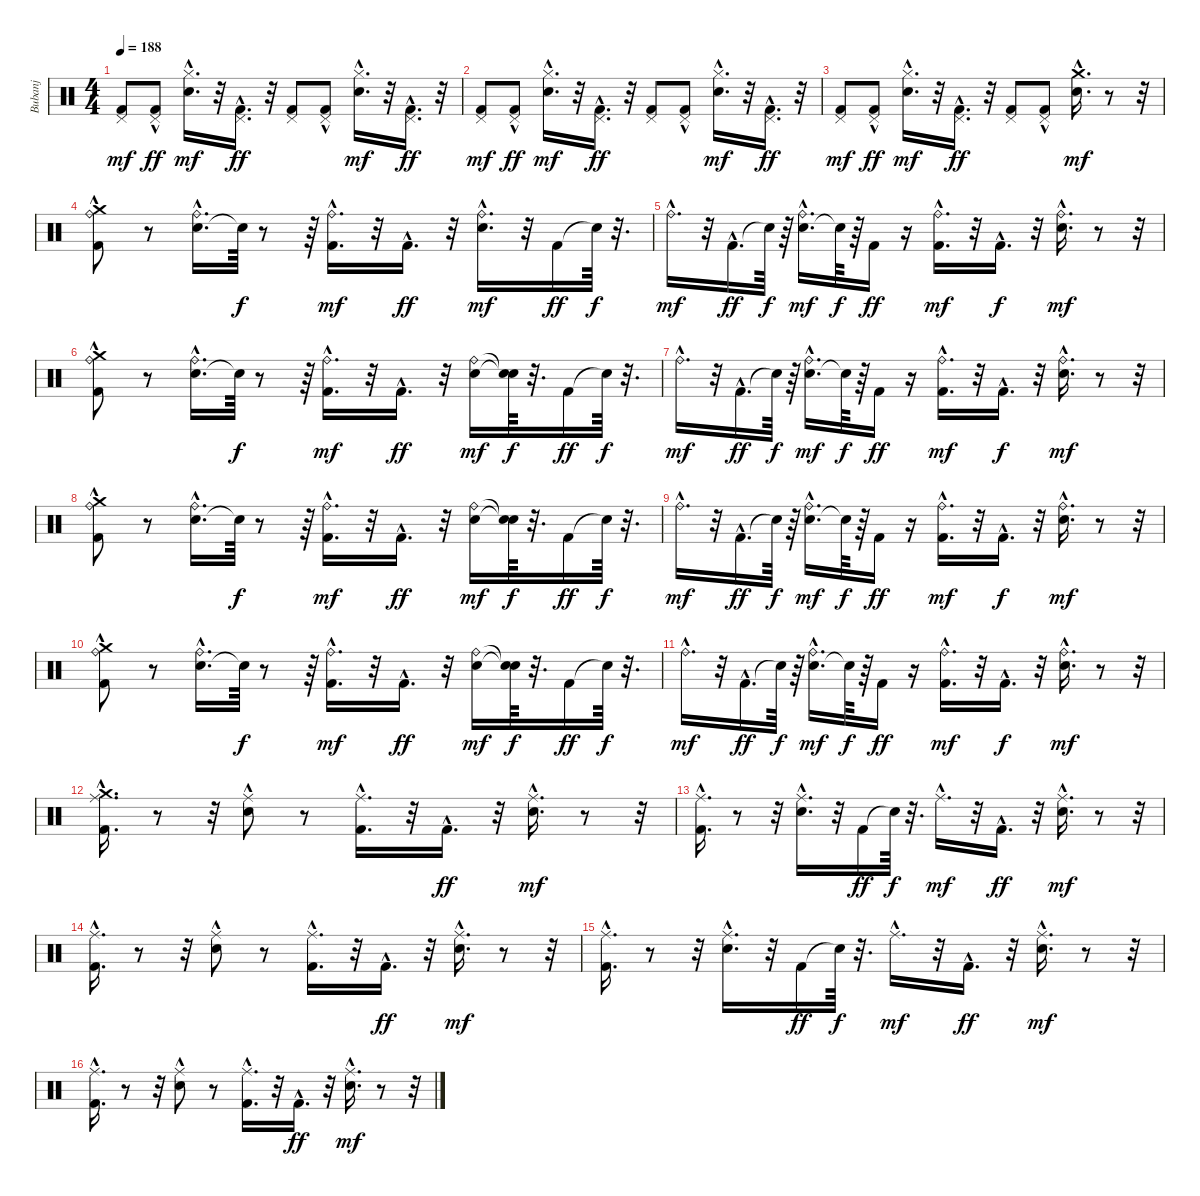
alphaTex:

\track ("Bubanj" "Bubanj") {instrument percussion}
\staff {score}
\articulation defaults
\ts (4 4)
\tempo 188
\clef neutral
\ks c
("Kick (hit) 2" "Pedal Hi-Hat (hit)").8{dy mf} ("Pedal Hi-Hat (hit)"{hac} "Kick (hit) 2").8{dy ff} ("Electric Snare (hit)"{hac} "Hi-Hat (closed)").16{d dy mf} r.32 ("Pedal Hi-Hat (hit)"{hac} "Kick (hit) 2"{hac}).16{d dy ff} r.32 ("Pedal Hi-Hat (hit)" "Kick (hit) 2").8 ("Pedal Hi-Hat (hit)"{hac} "Kick (hit) 2").8 ("Electric Snare (hit)"{hac} "Hi-Hat (closed)").16{d dy mf} r.32 ("Pedal Hi-Hat (hit)" "Kick (hit) 2"{hac}).16{d dy ff} r.32 |
("Kick (hit) 2" "Pedal Hi-Hat (hit)").8{dy mf} ("Pedal Hi-Hat (hit)"{hac} "Kick (hit) 2").8{dy ff} ("Electric Snare (hit)"{hac} "Hi-Hat (closed)").16{d dy mf} r.32 ("Pedal Hi-Hat (hit)"{hac} "Kick (hit) 2"{hac}).16{d dy ff} r.32 ("Pedal Hi-Hat (hit)" "Kick (hit) 2").8 ("Pedal Hi-Hat (hit)"{hac} "Kick (hit) 2").8 ("Electric Snare (hit)"{hac} "Hi-Hat (closed)").16{d dy mf} r.32 ("Pedal Hi-Hat (hit)" "Kick (hit) 2"{hac}).16{d dy ff} r.32 |
("Kick (hit) 2" "Pedal Hi-Hat (hit)").8{dy mf} ("Pedal Hi-Hat (hit)"{hac} "Kick (hit) 2").8{dy ff} ("Electric Snare (hit)"{hac} "Hi-Hat (closed)").16{d dy mf} r.32 ("Pedal Hi-Hat (hit)"{hac} "Kick (hit) 2"{hac}).16{d dy ff} r.32 ("Pedal Hi-Hat (hit)" "Kick (hit) 2").8 ("Pedal Hi-Hat (hit)"{hac} "Kick (hit) 2").8 ("Electric Snare (hit)"{hac} "Crash medium (hit)").16{d dy mf} r.8 r.32 |
("Kick (hit) 2" "Ride (bell)"{hac} "Crash medium (hit)"{hac}).8 r.8 ("Electric Snare (hit)"{hac} "Ride (bell)"{hac}).16{d} "Snare (hit)"{t}.64{dy f} r.8 r.64 ("Kick (hit) 2" "Ride (bell)"{hac}).16{d dy mf} r.32 "Kick (hit) 2"{hac}.16{d dy ff} r.32 ("Electric Snare (hit)" "Ride (bell)"{hac}).16{d dy mf} r.32 "Kick (hit) 2".16{dy ff} "Snare (hit)"{t}.64{dy f} r.32{d} |
"Ride (bell)"{hac}.16{d dy mf} r.32 "Kick (hit) 2"{hac}.16{d dy ff} "Snare (hit)"{t}.64{dy f} r.64 ("Electric Snare (hit)"{hac} "Ride (bell)"{hac}).16{d dy mf} "Snare (hit)"{t}.64{dy f} r.64 "Kick (hit) 2".16{dy ff} r.16 ("Kick (hit) 2" "Ride (bell)"{hac}).16{d dy mf} r.32 "Kick (hit) 2"{hac}.16{d dy f} r.32 ("Electric Snare (hit)" "Ride (bell)"{hac}).16{d dy mf} r.8 r.32 |
("Kick (hit) 2" "Ride (bell)"{hac} "Crash medium (hit)"{hac}).8 r.8 ("Electric Snare (hit)"{hac} "Ride (bell)"{hac}).16{d} "Snare (hit)"{t}.64{dy f} r.8 r.64 ("Kick (hit) 2" "Ride (bell)"{hac}).16{d dy mf} r.32 "Kick (hit) 2"{hac}.16{d dy ff} r.32 ("Electric Snare (hit)" "Ride (bell)").16{dy mf} ("Snare (hit)"{t} "Snare (hit)"{t}).64{dy f} r.32{d} "Kick (hit) 2".16{dy ff} "Snare (hit)"{t}.64{dy f} r.32{d} |
"Ride (bell)"{hac}.16{d dy mf} r.32 "Kick (hit) 2"{hac}.16{d dy ff} "Snare (hit)"{t}.64{dy f} r.64 ("Electric Snare (hit)"{hac} "Ride (bell)"{hac}).16{d dy mf} "Snare (hit)"{t}.64{dy f} r.64 "Kick (hit) 2".16{dy ff} r.16 ("Kick (hit) 2" "Ride (bell)"{hac}).16{d dy mf} r.32 "Kick (hit) 2"{hac}.16{d dy f} r.32 ("Electric Snare (hit)" "Ride (bell)"{hac}).16{d dy mf} r.8 r.32 |
("Kick (hit) 2" "Ride (bell)"{hac} "Crash medium (hit)"{hac}).8 r.8 ("Electric Snare (hit)"{hac} "Ride (bell)"{hac}).16{d} "Snare (hit)"{t}.64{dy f} r.8 r.64 ("Kick (hit) 2" "Ride (bell)"{hac}).16{d dy mf} r.32 "Kick (hit) 2"{hac}.16{d dy ff} r.32 ("Electric Snare (hit)" "Ride (bell)").16{dy mf} ("Snare (hit)"{t} "Snare (hit)"{t}).64{dy f} r.32{d} "Kick (hit) 2".16{dy ff} "Snare (hit)"{t}.64{dy f} r.32{d} |
"Ride (bell)"{hac}.16{d dy mf} r.32 "Kick (hit) 2"{hac}.16{d dy ff} "Snare (hit)"{t}.64{dy f} r.64 ("Electric Snare (hit)"{hac} "Ride (bell)"{hac}).16{d dy mf} "Snare (hit)"{t}.64{dy f} r.64 "Kick (hit) 2".16{dy ff} r.16 ("Kick (hit) 2" "Ride (bell)"{hac}).16{d dy mf} r.32 "Kick (hit) 2"{hac}.16{d dy f} r.32 ("Electric Snare (hit)" "Ride (bell)"{hac}).16{d dy mf} r.8 r.32 |
("Kick (hit) 2" "Ride (bell)"{hac} "Crash medium (hit)"{hac}).8 r.8 ("Electric Snare (hit)"{hac} "Ride (bell)"{hac}).16{d} "Snare (hit)"{t}.64{dy f} r.8 r.64 ("Kick (hit) 2" "Ride (bell)"{hac}).16{d dy mf} r.32 "Kick (hit) 2"{hac}.16{d dy ff} r.32 ("Electric Snare (hit)" "Ride (bell)").16{dy mf} ("Snare (hit)"{t} "Snare (hit)"{t}).64{dy f} r.32{d} "Kick (hit) 2".16{dy ff} "Snare (hit)"{t}.64{dy f} r.32{d} |
"Ride (bell)"{hac}.16{d dy mf} r.32 "Kick (hit) 2"{hac}.16{d dy ff} "Snare (hit)"{t}.64{dy f} r.64 ("Electric Snare (hit)"{hac} "Ride (bell)"{hac}).16{d dy mf} "Snare (hit)"{t}.64{dy f} r.64 "Kick (hit) 2".16{dy ff} r.16 ("Kick (hit) 2" "Ride (bell)"{hac}).16{d dy mf} r.32 "Kick (hit) 2"{hac}.16{d dy f} r.32 ("Electric Snare (hit)" "Ride (bell)"{hac}).16{d dy mf} r.8 r.32 |
("Kick (hit) 2"{hac} "Ride (middle)"{hac} "Crash medium (hit)"{hac}).16{d} r.8 r.32 ("Electric Snare (hit)" "Ride (middle)"{hac}).8 r.8 ("Kick (hit) 2" "Ride (middle)"{hac}).16{d} r.32 "Kick (hit) 2"{hac}.16{d dy ff} r.32 ("Electric Snare (hit)" "Ride (middle)"{hac}).16{d dy mf} r.8 r.32 |
("Kick (hit) 2"{hac} "Ride (middle)"{hac}).16{d} r.8 r.32 ("Electric Snare (hit)" "Ride (middle)"{hac}).16{d} r.32 "Kick (hit) 2".16{dy ff} "Snare (hit)"{t}.64{dy f} r.32{d} "Ride (middle)"{hac}.16{d dy mf} r.32 "Kick (hit) 2"{hac}.16{d dy ff} r.32 ("Electric Snare (hit)" "Ride (middle)"{hac}).16{d dy mf} r.8 r.32 |
("Kick (hit) 2"{hac} "Ride (middle)"{hac}).16{d} r.8 r.32 ("Electric Snare (hit)" "Ride (middle)"{hac}).8 r.8 ("Kick (hit) 2" "Ride (middle)"{hac}).16{d} r.32 "Kick (hit) 2"{hac}.16{d dy ff} r.32 ("Electric Snare (hit)" "Ride (middle)"{hac}).16{d dy mf} r.8 r.32 |
("Kick (hit) 2"{hac} "Ride (middle)"{hac}).16{d} r.8 r.32 ("Electric Snare (hit)" "Ride (middle)"{hac}).16{d} r.32 "Kick (hit) 2".16{dy ff} "Snare (hit)"{t}.64{dy f} r.32{d} "Ride (middle)"{hac}.16{d dy mf} r.32 "Kick (hit) 2"{hac}.16{d dy ff} r.32 ("Electric Snare (hit)" "Ride (middle)"{hac}).16{d dy mf} r.8 r.32 |
("Kick (hit) 2"{hac} "Ride (middle)"{hac}).16{d} r.8 r.32 ("Electric Snare (hit)" "Ride (middle)"{hac}).8 r.8 ("Kick (hit) 2" "Ride (middle)"{hac}).16{d} r.32 "Kick (hit) 2"{hac}.16{d dy ff} r.32 ("Electric Snare (hit)" "Ride (middle)"{hac}).16{d dy mf} r.8 r.32
